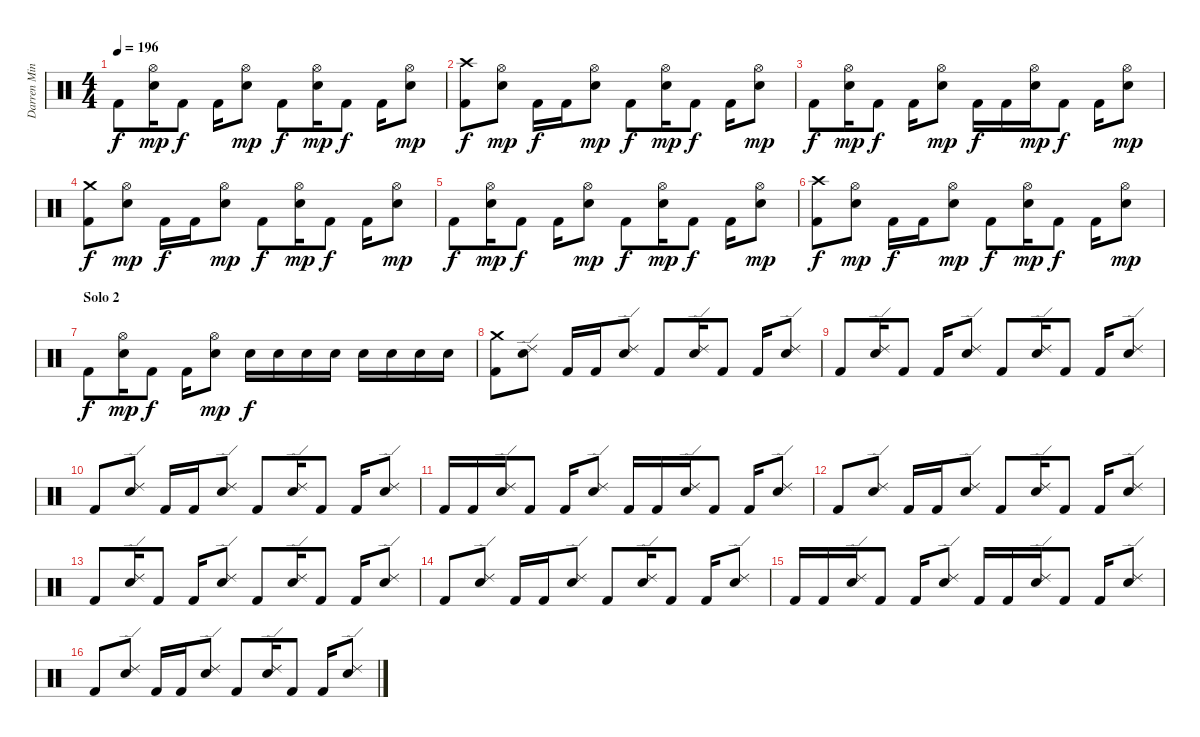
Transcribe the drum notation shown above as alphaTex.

\track ("Darren Minter" "Darren Min") {instrument percussion}
\staff {score}
\articulation defaults
\ts (4 4)
\tempo 196
\clef neutral
\ks c "Kick (hit) 2".8{dy f}
("Hi-Hat (open)" "Snare (hit) 2").16{dy mp} "Kick (hit) 2".8{dy f} "Kick (hit) 2".16 ("Hi-Hat (open)" "Snare (hit) 2").8{dy mp} "Kick (hit) 2".8{dy f} ("Hi-Hat (open)" "Snare (hit) 2").16{dy mp} "Kick (hit) 2".8{dy f} "Kick (hit) 2".16 ("Hi-Hat (open)" "Snare (hit) 2").8{dy mp} |
("Kick (hit) 2" "Crash high (hit)").8{dy f} ("Hi-Hat (open)" "Snare (hit) 2").8{dy mp} "Kick (hit) 2".16{dy f} "Kick (hit) 2".16 ("Hi-Hat (open)" "Snare (hit) 2").8{dy mp} "Kick (hit) 2".8{dy f} ("Hi-Hat (open)" "Snare (hit) 2").16{dy mp} "Kick (hit) 2".8{dy f} "Kick (hit) 2".16 ("Hi-Hat (open)" "Snare (hit) 2").8{dy mp} |
"Kick (hit) 2".8{dy f} ("Hi-Hat (open)" "Snare (hit) 2").16{dy mp} "Kick (hit) 2".8{dy f} "Kick (hit) 2".16 ("Hi-Hat (open)" "Snare (hit) 2").8{dy mp} "Kick (hit) 2".16{dy f} "Kick (hit) 2".16 ("Hi-Hat (open)" "Snare (hit) 2").16{dy mp} "Kick (hit) 2".8{dy f} "Kick (hit) 2".16 ("Hi-Hat (open)" "Snare (hit) 2").8{dy mp} |
("Kick (hit) 2" "Crash medium (hit)").8{dy f} ("Hi-Hat (open)" "Snare (hit) 2").8{dy mp} "Kick (hit) 2".16{dy f} "Kick (hit) 2".16 ("Hi-Hat (open)" "Snare (hit) 2").8{dy mp} "Kick (hit) 2".8{dy f} ("Hi-Hat (open)" "Snare (hit) 2").16{dy mp} "Kick (hit) 2".8{dy f} "Kick (hit) 2".16 ("Hi-Hat (open)" "Snare (hit) 2").8{dy mp} |
"Kick (hit) 2".8{dy f} ("Hi-Hat (open)" "Snare (hit) 2").16{dy mp} "Kick (hit) 2".8{dy f} "Kick (hit) 2".16 ("Hi-Hat (open)" "Snare (hit) 2").8{dy mp} "Kick (hit) 2".8{dy f} ("Hi-Hat (open)" "Snare (hit) 2").16{dy mp} "Kick (hit) 2".8{dy f} "Kick (hit) 2".16 ("Hi-Hat (open)" "Snare (hit) 2").8{dy mp} |
("Kick (hit) 2" "Crash high (hit)").8{dy f} ("Hi-Hat (open)" "Snare (hit) 2").8{dy mp} "Kick (hit) 2".16{dy f} "Kick (hit) 2".16 ("Hi-Hat (open)" "Snare (hit) 2").8{dy mp} "Kick (hit) 2".8{dy f} ("Hi-Hat (open)" "Snare (hit) 2").16{dy mp} "Kick (hit) 2".8{dy f} "Kick (hit) 2".16 ("Hi-Hat (open)" "Snare (hit) 2").8{dy mp} |
\section ("" "Solo 2")
"Kick (hit) 2".8{dy f} ("Hi-Hat (open)" "Snare (hit) 2").16{dy mp} "Kick (hit) 2".8{dy f} "Kick (hit) 2".16 ("Hi-Hat (open)" "Snare (hit) 2").8{dy mp} "Snare (hit) 2".16{dy f} "Snare (hit) 2".16 "Snare (hit) 2".16 "Snare (hit) 2".16 "Snare (hit) 2".16 "Snare (hit) 2".16 "Snare (hit) 2".16 "Snare (hit) 2".16 |
("Kick (hit) 2" "Crash medium (hit)").8 ("Ride (edge) 2" "Snare (hit) 2").8 "Kick (hit) 2".16 "Kick (hit) 2".16 ("Ride (edge) 2" "Snare (hit) 2").8 "Kick (hit) 2".8 ("Ride (edge) 2" "Snare (hit) 2").16 "Kick (hit) 2".8 "Kick (hit) 2".16 ("Ride (edge) 2" "Snare (hit) 2").8 |
"Kick (hit) 2".8 ("Ride (edge) 2" "Snare (hit) 2").16 "Kick (hit) 2".8 "Kick (hit) 2".16 ("Ride (edge) 2" "Snare (hit) 2").8 "Kick (hit) 2".8 ("Ride (edge) 2" "Snare (hit) 2").16 "Kick (hit) 2".8 "Kick (hit) 2".16 ("Ride (edge) 2" "Snare (hit) 2").8 |
"Kick (hit) 2".8 ("Ride (edge) 2" "Snare (hit) 2").8 "Kick (hit) 2".16 "Kick (hit) 2".16 ("Ride (edge) 2" "Snare (hit) 2").8 "Kick (hit) 2".8 ("Ride (edge) 2" "Snare (hit) 2").16 "Kick (hit) 2".8 "Kick (hit) 2".16 ("Ride (edge) 2" "Snare (hit) 2").8 |
"Kick (hit) 2".16 "Kick (hit) 2".16 ("Ride (edge) 2" "Snare (hit) 2").16 "Kick (hit) 2".8 "Kick (hit) 2".16 ("Ride (edge) 2" "Snare (hit) 2").8 "Kick (hit) 2".16 "Kick (hit) 2".16 ("Ride (edge) 2" "Snare (hit) 2").16 "Kick (hit) 2".8 "Kick (hit) 2".16 ("Ride (edge) 2" "Snare (hit) 2").8 |
"Kick (hit) 2".8 ("Ride (edge) 2" "Snare (hit) 2").8 "Kick (hit) 2".16 "Kick (hit) 2".16 ("Ride (edge) 2" "Snare (hit) 2").8 "Kick (hit) 2".8 ("Ride (edge) 2" "Snare (hit) 2").16 "Kick (hit) 2".8 "Kick (hit) 2".16 ("Ride (edge) 2" "Snare (hit) 2").8 |
"Kick (hit) 2".8 ("Ride (edge) 2" "Snare (hit) 2").16 "Kick (hit) 2".8 "Kick (hit) 2".16 ("Ride (edge) 2" "Snare (hit) 2").8 "Kick (hit) 2".8 ("Ride (edge) 2" "Snare (hit) 2").16 "Kick (hit) 2".8 "Kick (hit) 2".16 ("Ride (edge) 2" "Snare (hit) 2").8 |
"Kick (hit) 2".8 ("Ride (edge) 2" "Snare (hit) 2").8 "Kick (hit) 2".16 "Kick (hit) 2".16 ("Ride (edge) 2" "Snare (hit) 2").8 "Kick (hit) 2".8 ("Ride (edge) 2" "Snare (hit) 2").16 "Kick (hit) 2".8 "Kick (hit) 2".16 ("Ride (edge) 2" "Snare (hit) 2").8 |
"Kick (hit) 2".16 "Kick (hit) 2".16 ("Ride (edge) 2" "Snare (hit) 2").16 "Kick (hit) 2".8 "Kick (hit) 2".16 ("Ride (edge) 2" "Snare (hit) 2").8 "Kick (hit) 2".16 "Kick (hit) 2".16 ("Ride (edge) 2" "Snare (hit) 2").16 "Kick (hit) 2".8 "Kick (hit) 2".16 ("Ride (edge) 2" "Snare (hit) 2").8 |
"Kick (hit) 2".8 ("Ride (edge) 2" "Snare (hit) 2").8 "Kick (hit) 2".16 "Kick (hit) 2".16 ("Ride (edge) 2" "Snare (hit) 2").8 "Kick (hit) 2".8 ("Ride (edge) 2" "Snare (hit) 2").16 "Kick (hit) 2".8 "Kick (hit) 2".16 ("Ride (edge) 2" "Snare (hit) 2").8
